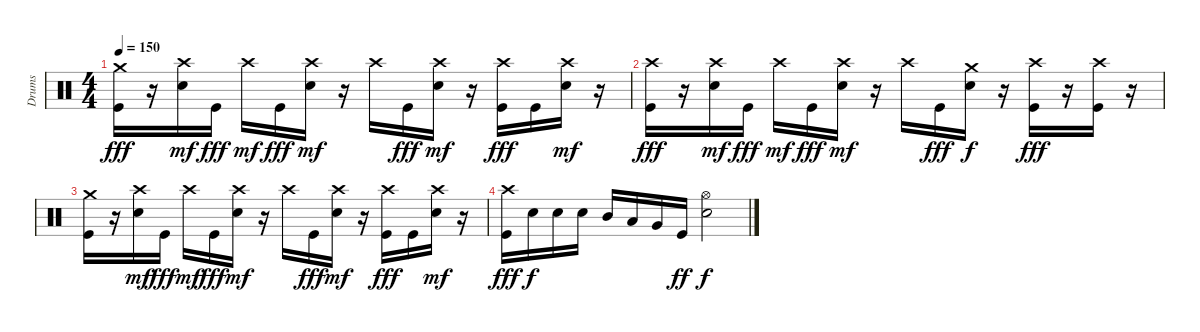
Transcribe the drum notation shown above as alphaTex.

\track ("Drums" "Drums") {instrument percussion}
\staff {score}
\articulation defaults
\ts (4 4)
\tempo 150
\clef neutral
\ks c
("Crash medium (hit)" "Kick (hit)").16{dy fff} r.16 ("Crash high (hit)" "Electric Snare (hit)").16{dy mf} "Kick (hit)".16{dy fff} "Crash high (hit)".16{dy mf} "Kick (hit)".16{dy fff} ("Crash high (hit)" "Electric Snare (hit)").16{dy mf} r.16 "Crash high (hit)".16 "Kick (hit)".16{dy fff} ("Crash high (hit)" "Electric Snare (hit)").16{dy mf} r.16 ("Crash high (hit)" "Kick (hit)").16{dy fff} "Kick (hit)".16 ("Crash high (hit)" "Electric Snare (hit)").16{dy mf} r.16 |
("Crash high (hit)" "Kick (hit)").16{dy fff} r.16 ("Crash high (hit)" "Electric Snare (hit)").16{dy mf} "Kick (hit)".16{dy fff} "Crash high (hit)".16{dy mf} "Kick (hit)".16{dy fff} ("Crash high (hit)" "Electric Snare (hit)").16{dy mf} r.16 "Crash high (hit)".16 "Kick (hit)".16{dy fff} ("Crash medium (hit)" "Electric Snare (hit)").16{dy f} r.16 ("Crash high (hit)" "Kick (hit)").16{dy fff} r.16 ("Crash high (hit)" "Kick (hit)").16 r.16 |
("Crash medium (hit)" "Kick (hit)").16 r.16 ("Crash high (hit)" "Electric Snare (hit)").16{dy mf} "Kick (hit)".16{dy fff} "Crash high (hit)".16{dy mf} "Kick (hit)".16{dy fff} ("Crash high (hit)" "Electric Snare (hit)").16{dy mf} r.16 "Crash high (hit)".16 "Kick (hit)".16{dy fff} ("Crash high (hit)" "Electric Snare (hit)").16{dy mf} r.16 ("Crash high (hit)" "Kick (hit)").16{dy fff} "Kick (hit)".16 ("Crash high (hit)" "Electric Snare (hit)").16{dy mf} r.16 |
("Crash high (hit)" "Kick (hit)").16{dy fff} "Electric Snare (hit)".16{dy f} "Electric Snare (hit)".16 "Electric Snare (hit)".16 "Mid Tom (hit)".16 "Low Tom (hit)".16 "Very Low Tom (hit)".16 "Kick (hit)".16{dy ff} ("Hi-Hat (open)" "Electric Snare (hit)").2{dy f}
